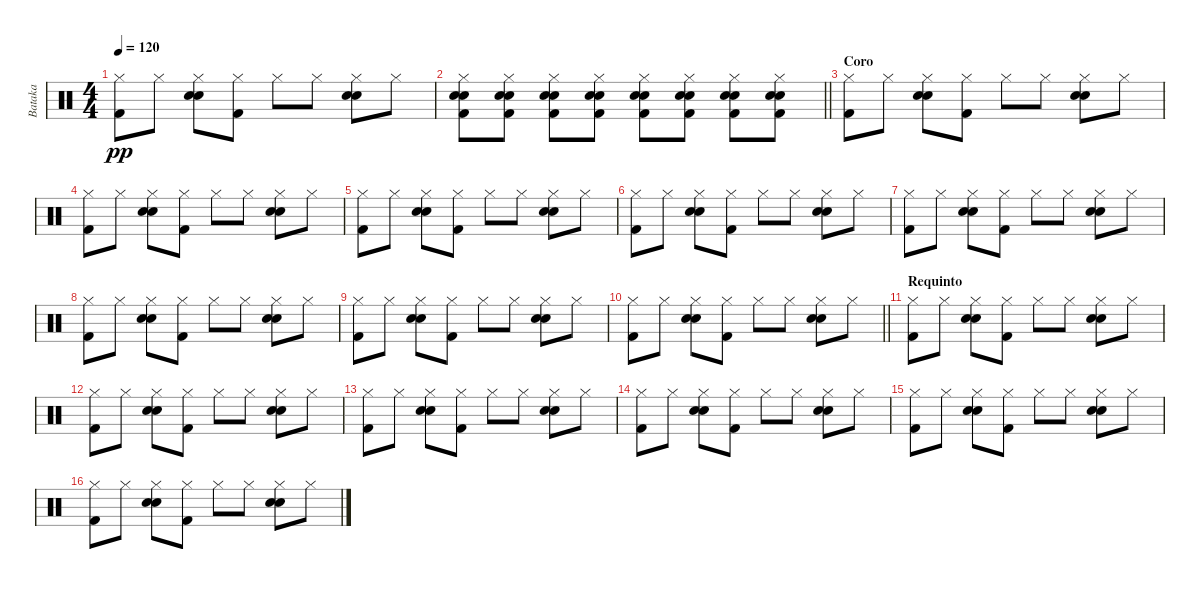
\track ("Bataka" "Bataka") {instrument percussion}
\staff {score}
\articulation defaults
\ts (4 4)
\tempo 120
\clef neutral
\ks c
("Hi-Hat (closed)" "Kick (hit) 2").8{dy pp} "Hi-Hat (closed)".8 ("Hi-Hat (closed)" "Electric Snare (hit)" "Snare (hit) 2").8 ("Hi-Hat (closed)" "Kick (hit) 2").8 "Hi-Hat (closed)".8 "Hi-Hat (closed)".8 ("Hi-Hat (closed)" "Snare (hit) 2" "Electric Snare (hit)").8 "Hi-Hat (closed)".8 |
\barLineRight lightlight
("Hi-Hat (closed)" "Kick (hit) 2" "Electric Snare (hit)" "Snare (hit) 2").8 ("Hi-Hat (closed)" "Kick (hit) 2" "Electric Snare (hit)" "Snare (hit) 2").8 ("Hi-Hat (closed)" "Kick (hit) 2" "Electric Snare (hit)" "Snare (hit) 2").8 ("Hi-Hat (closed)" "Kick (hit) 2" "Electric Snare (hit)" "Snare (hit) 2").8 ("Hi-Hat (closed)" "Kick (hit) 2" "Electric Snare (hit)" "Snare (hit) 2").8 ("Hi-Hat (closed)" "Kick (hit) 2" "Electric Snare (hit)" "Snare (hit) 2").8 ("Hi-Hat (closed)" "Kick (hit) 2" "Electric Snare (hit)" "Snare (hit) 2").8 ("Hi-Hat (closed)" "Kick (hit) 2" "Electric Snare (hit)" "Snare (hit) 2").8 |
\section ("" "Coro")
("Hi-Hat (closed)" "Kick (hit) 2").8 "Hi-Hat (closed)".8 ("Hi-Hat (closed)" "Electric Snare (hit)" "Snare (hit) 2").8 ("Hi-Hat (closed)" "Kick (hit) 2").8 "Hi-Hat (closed)".8 "Hi-Hat (closed)".8 ("Hi-Hat (closed)" "Snare (hit) 2" "Electric Snare (hit)").8 "Hi-Hat (closed)".8 |
("Hi-Hat (closed)" "Kick (hit) 2").8 "Hi-Hat (closed)".8 ("Hi-Hat (closed)" "Electric Snare (hit)" "Snare (hit) 2").8 ("Hi-Hat (closed)" "Kick (hit) 2").8 "Hi-Hat (closed)".8 "Hi-Hat (closed)".8 ("Hi-Hat (closed)" "Snare (hit) 2" "Electric Snare (hit)").8 "Hi-Hat (closed)".8 |
("Hi-Hat (closed)" "Kick (hit) 2").8 "Hi-Hat (closed)".8 ("Hi-Hat (closed)" "Electric Snare (hit)" "Snare (hit) 2").8 ("Hi-Hat (closed)" "Kick (hit) 2").8 "Hi-Hat (closed)".8 "Hi-Hat (closed)".8 ("Hi-Hat (closed)" "Snare (hit) 2" "Electric Snare (hit)").8 "Hi-Hat (closed)".8 |
("Hi-Hat (closed)" "Kick (hit) 2").8 "Hi-Hat (closed)".8 ("Hi-Hat (closed)" "Electric Snare (hit)" "Snare (hit) 2").8 ("Hi-Hat (closed)" "Kick (hit) 2").8 "Hi-Hat (closed)".8 "Hi-Hat (closed)".8 ("Hi-Hat (closed)" "Snare (hit) 2" "Electric Snare (hit)").8 "Hi-Hat (closed)".8 |
("Hi-Hat (closed)" "Kick (hit) 2").8 "Hi-Hat (closed)".8 ("Hi-Hat (closed)" "Electric Snare (hit)" "Snare (hit) 2").8 ("Hi-Hat (closed)" "Kick (hit) 2").8 "Hi-Hat (closed)".8 "Hi-Hat (closed)".8 ("Hi-Hat (closed)" "Snare (hit) 2" "Electric Snare (hit)").8 "Hi-Hat (closed)".8 |
("Hi-Hat (closed)" "Kick (hit) 2").8 "Hi-Hat (closed)".8 ("Hi-Hat (closed)" "Electric Snare (hit)" "Snare (hit) 2").8 ("Hi-Hat (closed)" "Kick (hit) 2").8 "Hi-Hat (closed)".8 "Hi-Hat (closed)".8 ("Hi-Hat (closed)" "Snare (hit) 2" "Electric Snare (hit)").8 "Hi-Hat (closed)".8 |
("Hi-Hat (closed)" "Kick (hit) 2").8 "Hi-Hat (closed)".8 ("Hi-Hat (closed)" "Electric Snare (hit)" "Snare (hit) 2").8 ("Hi-Hat (closed)" "Kick (hit) 2").8 "Hi-Hat (closed)".8 "Hi-Hat (closed)".8 ("Hi-Hat (closed)" "Snare (hit) 2" "Electric Snare (hit)").8 "Hi-Hat (closed)".8 |
\barLineRight lightlight
("Hi-Hat (closed)" "Kick (hit) 2").8 "Hi-Hat (closed)".8 ("Hi-Hat (closed)" "Electric Snare (hit)" "Snare (hit) 2").8 ("Hi-Hat (closed)" "Kick (hit) 2").8 "Hi-Hat (closed)".8 "Hi-Hat (closed)".8 ("Hi-Hat (closed)" "Snare (hit) 2" "Electric Snare (hit)").8 "Hi-Hat (closed)".8 |
\section ("" "Requinto")
("Hi-Hat (closed)" "Kick (hit) 2").8 "Hi-Hat (closed)".8 ("Hi-Hat (closed)" "Electric Snare (hit)" "Snare (hit) 2").8 ("Hi-Hat (closed)" "Kick (hit) 2").8 "Hi-Hat (closed)".8 "Hi-Hat (closed)".8 ("Hi-Hat (closed)" "Snare (hit) 2" "Electric Snare (hit)").8 "Hi-Hat (closed)".8 |
("Hi-Hat (closed)" "Kick (hit) 2").8 "Hi-Hat (closed)".8 ("Hi-Hat (closed)" "Electric Snare (hit)" "Snare (hit) 2").8 ("Hi-Hat (closed)" "Kick (hit) 2").8 "Hi-Hat (closed)".8 "Hi-Hat (closed)".8 ("Hi-Hat (closed)" "Snare (hit) 2" "Electric Snare (hit)").8 "Hi-Hat (closed)".8 |
("Hi-Hat (closed)" "Kick (hit) 2").8 "Hi-Hat (closed)".8 ("Hi-Hat (closed)" "Electric Snare (hit)" "Snare (hit) 2").8 ("Hi-Hat (closed)" "Kick (hit) 2").8 "Hi-Hat (closed)".8 "Hi-Hat (closed)".8 ("Hi-Hat (closed)" "Snare (hit) 2" "Electric Snare (hit)").8 "Hi-Hat (closed)".8 |
("Hi-Hat (closed)" "Kick (hit) 2").8 "Hi-Hat (closed)".8 ("Hi-Hat (closed)" "Electric Snare (hit)" "Snare (hit) 2").8 ("Hi-Hat (closed)" "Kick (hit) 2").8 "Hi-Hat (closed)".8 "Hi-Hat (closed)".8 ("Hi-Hat (closed)" "Snare (hit) 2" "Electric Snare (hit)").8 "Hi-Hat (closed)".8 |
("Hi-Hat (closed)" "Kick (hit) 2").8 "Hi-Hat (closed)".8 ("Hi-Hat (closed)" "Electric Snare (hit)" "Snare (hit) 2").8 ("Hi-Hat (closed)" "Kick (hit) 2").8 "Hi-Hat (closed)".8 "Hi-Hat (closed)".8 ("Hi-Hat (closed)" "Snare (hit) 2" "Electric Snare (hit)").8 "Hi-Hat (closed)".8 |
("Hi-Hat (closed)" "Kick (hit) 2").8 "Hi-Hat (closed)".8 ("Hi-Hat (closed)" "Electric Snare (hit)" "Snare (hit) 2").8 ("Hi-Hat (closed)" "Kick (hit) 2").8 "Hi-Hat (closed)".8 "Hi-Hat (closed)".8 ("Hi-Hat (closed)" "Snare (hit) 2" "Electric Snare (hit)").8 "Hi-Hat (closed)".8
